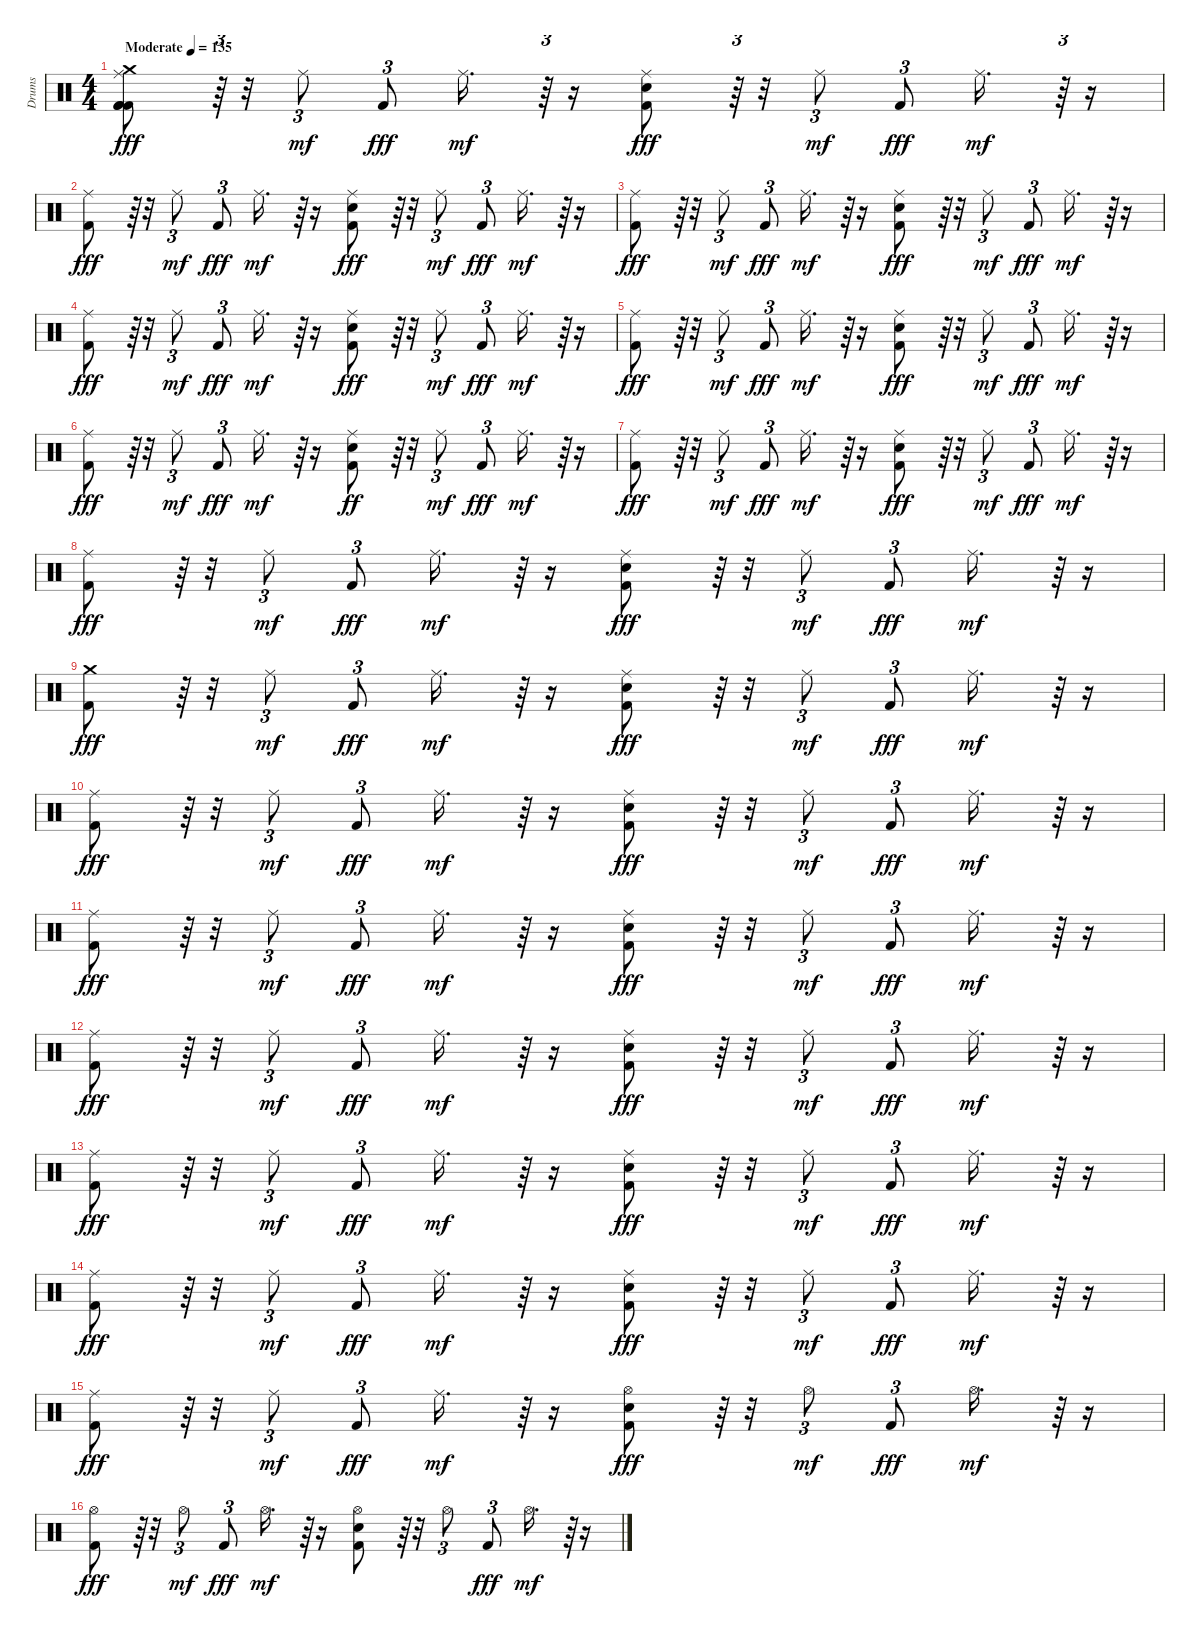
\track ("Drums" "Drums") {instrument percussion}
\staff {score}
\articulation defaults
\ts (4 4)
\tempo (135 "Moderate")
\clef neutral
\ks c
("Ride (middle)" "Crash medium (hit)" "Kick (hit) 2" "Kick (hit) 2" "Kick (hit) 2").8{dy fff} r.64{tu (3 2)} r.32 "Ride (middle)".8{tu (3 2) dy mf} "Kick (hit) 2".8{tu (3 2) dy fff} "Ride (middle)".16{d dy mf} r.64{tu (3 2)} r.16 ("Ride (middle)" "Kick (hit) 2" "Snare (hit) 2").8{dy fff} r.64{tu (3 2)} r.32 "Ride (middle)".8{tu (3 2) dy mf} "Kick (hit) 2".8{tu (3 2) dy fff} "Ride (middle)".16{d dy mf} r.64{tu (3 2)} r.16 |
("Ride (middle)" "Kick (hit) 2").8{dy fff} r.64{tu (3 2)} r.32 "Ride (middle)".8{tu (3 2) dy mf} "Kick (hit) 2".8{tu (3 2) dy fff} "Ride (middle)".16{d dy mf} r.64{tu (3 2)} r.16 ("Ride (middle)" "Kick (hit) 2" "Snare (hit) 2").8{dy fff} r.64{tu (3 2)} r.32 "Ride (middle)".8{tu (3 2) dy mf} "Kick (hit) 2".8{tu (3 2) dy fff} "Ride (middle)".16{d dy mf} r.64{tu (3 2)} r.16 |
("Ride (middle)" "Kick (hit) 2").8{dy fff} r.64{tu (3 2)} r.32 "Ride (middle)".8{tu (3 2) dy mf} "Kick (hit) 2".8{tu (3 2) dy fff} "Ride (middle)".16{d dy mf} r.64{tu (3 2)} r.16 ("Ride (middle)" "Kick (hit) 2" "Snare (hit) 2").8{dy fff} r.64{tu (3 2)} r.32 "Ride (middle)".8{tu (3 2) dy mf} "Kick (hit) 2".8{tu (3 2) dy fff} "Ride (middle)".16{d dy mf} r.64{tu (3 2)} r.16 |
("Ride (middle)" "Kick (hit) 2").8{dy fff} r.64{tu (3 2)} r.32 "Ride (middle)".8{tu (3 2) dy mf} "Kick (hit) 2".8{tu (3 2) dy fff} "Ride (middle)".16{d dy mf} r.64{tu (3 2)} r.16 ("Ride (middle)" "Snare (hit) 2" "Kick (hit) 2").8{dy fff} r.64{tu (3 2)} r.32 "Ride (middle)".8{tu (3 2) dy mf} "Kick (hit) 2".8{tu (3 2) dy fff} "Ride (middle)".16{d dy mf} r.64{tu (3 2)} r.16 |
("Ride (middle)" "Kick (hit) 2").8{dy fff} r.64{tu (3 2)} r.32 "Ride (middle)".8{tu (3 2) dy mf} "Kick (hit) 2".8{tu (3 2) dy fff} "Ride (middle)".16{d dy mf} r.64{tu (3 2)} r.16 ("Ride (middle)" "Snare (hit) 2" "Kick (hit) 2").8{dy fff} r.64{tu (3 2)} r.32 "Ride (middle)".8{tu (3 2) dy mf} "Kick (hit) 2".8{tu (3 2) dy fff} "Ride (middle)".16{d dy mf} r.64{tu (3 2)} r.16 |
("Ride (middle)" "Kick (hit) 2").8{dy fff} r.64{tu (3 2)} r.32 "Ride (middle)".8{tu (3 2) dy mf} "Kick (hit) 2".8{tu (3 2) dy fff} "Ride (middle)".16{d dy mf} r.64{tu (3 2)} r.16 ("Ride (middle)" "Kick (hit) 2" "Snare (hit) 2").8{dy ff} r.64{tu (3 2)} r.32 "Ride (middle)".8{tu (3 2) dy mf} "Kick (hit) 2".8{tu (3 2) dy fff} "Ride (middle)".16{d dy mf} r.64{tu (3 2)} r.16 |
("Ride (middle)" "Kick (hit) 2").8{dy fff} r.64{tu (3 2)} r.32 "Ride (middle)".8{tu (3 2) dy mf} "Kick (hit) 2".8{tu (3 2) dy fff} "Ride (middle)".16{d dy mf} r.64{tu (3 2)} r.16 ("Ride (middle)" "Snare (hit) 2" "Kick (hit) 2").8{dy fff} r.64{tu (3 2)} r.32 "Ride (middle)".8{tu (3 2) dy mf} "Kick (hit) 2".8{tu (3 2) dy fff} "Ride (middle)".16{d dy mf} r.64{tu (3 2)} r.16 |
("Ride (middle)" "Kick (hit) 2").8{dy fff} r.64{tu (3 2)} r.32 "Ride (middle)".8{tu (3 2) dy mf} "Kick (hit) 2".8{tu (3 2) dy fff} "Ride (middle)".16{d dy mf} r.64{tu (3 2)} r.16 ("Ride (middle)" "Snare (hit) 2" "Kick (hit) 2").8{dy fff} r.64{tu (3 2)} r.32 "Ride (middle)".8{tu (3 2) dy mf} "Kick (hit) 2".8{tu (3 2) dy fff} "Ride (middle)".16{d dy mf} r.64{tu (3 2)} r.16 |
("Crash medium (hit)" "Kick (hit) 2").8{dy fff} r.64{tu (3 2)} r.32 "Ride (middle)".8{tu (3 2) dy mf} "Kick (hit) 2".8{tu (3 2) dy fff} "Ride (middle)".16{d dy mf} r.64{tu (3 2)} r.16 ("Ride (middle)" "Snare (hit) 2" "Kick (hit) 2").8{dy fff} r.64{tu (3 2)} r.32 "Ride (middle)".8{tu (3 2) dy mf} "Kick (hit) 2".8{tu (3 2) dy fff} "Ride (middle)".16{d dy mf} r.64{tu (3 2)} r.16 |
("Ride (middle)" "Kick (hit) 2").8{dy fff} r.64{tu (3 2)} r.32 "Ride (middle)".8{tu (3 2) dy mf} "Kick (hit) 2".8{tu (3 2) dy fff} "Ride (middle)".16{d dy mf} r.64{tu (3 2)} r.16 ("Ride (middle)" "Kick (hit) 2" "Snare (hit) 2").8{dy fff} r.64{tu (3 2)} r.32 "Ride (middle)".8{tu (3 2) dy mf} "Kick (hit) 2".8{tu (3 2) dy fff} "Ride (middle)".16{d dy mf} r.64{tu (3 2)} r.16 |
("Ride (middle)" "Kick (hit) 2").8{dy fff} r.64{tu (3 2)} r.32 "Ride (middle)".8{tu (3 2) dy mf} "Kick (hit) 2".8{tu (3 2) dy fff} "Ride (middle)".16{d dy mf} r.64{tu (3 2)} r.16 ("Ride (middle)" "Snare (hit) 2" "Kick (hit) 2").8{dy fff} r.64{tu (3 2)} r.32 "Ride (middle)".8{tu (3 2) dy mf} "Kick (hit) 2".8{tu (3 2) dy fff} "Ride (middle)".16{d dy mf} r.64{tu (3 2)} r.16 |
("Ride (middle)" "Kick (hit) 2").8{dy fff} r.64{tu (3 2)} r.32 "Ride (middle)".8{tu (3 2) dy mf} "Kick (hit) 2".8{tu (3 2) dy fff} "Ride (middle)".16{d dy mf} r.64{tu (3 2)} r.16 ("Ride (middle)" "Snare (hit) 2" "Kick (hit) 2").8{dy fff} r.64{tu (3 2)} r.32 "Ride (middle)".8{tu (3 2) dy mf} "Kick (hit) 2".8{tu (3 2) dy fff} "Ride (middle)".16{d dy mf} r.64{tu (3 2)} r.16 |
("Ride (middle)" "Kick (hit) 2").8{dy fff} r.64{tu (3 2)} r.32 "Ride (middle)".8{tu (3 2) dy mf} "Kick (hit) 2".8{tu (3 2) dy fff} "Ride (middle)".16{d dy mf} r.64{tu (3 2)} r.16 ("Ride (middle)" "Snare (hit) 2" "Kick (hit) 2").8{dy fff} r.64{tu (3 2)} r.32 "Ride (middle)".8{tu (3 2) dy mf} "Kick (hit) 2".8{tu (3 2) dy fff} "Ride (middle)".16{d dy mf} r.64{tu (3 2)} r.16 |
("Ride (middle)" "Kick (hit) 2").8{dy fff} r.64{tu (3 2)} r.32 "Ride (middle)".8{tu (3 2) dy mf} "Kick (hit) 2".8{tu (3 2) dy fff} "Ride (middle)".16{d dy mf} r.64{tu (3 2)} r.16 ("Ride (middle)" "Snare (hit) 2" "Kick (hit) 2").8{dy fff} r.64{tu (3 2)} r.32 "Ride (middle)".8{tu (3 2) dy mf} "Kick (hit) 2".8{tu (3 2) dy fff} "Ride (middle)".16{d dy mf} r.64{tu (3 2)} r.16 |
("Ride (middle)" "Kick (hit) 2").8{dy fff} r.64{tu (3 2)} r.32 "Ride (middle)".8{tu (3 2) dy mf} "Kick (hit) 2".8{tu (3 2) dy fff} "Ride (middle)".16{d dy mf} r.64{tu (3 2)} r.16 ("Hi-Hat (open)" "Snare (hit) 2" "Kick (hit) 2").8{dy fff} r.64{tu (3 2)} r.32 "Hi-Hat (open)".8{tu (3 2) dy mf} "Kick (hit) 2".8{tu (3 2) dy fff} "Hi-Hat (open)".16{d dy mf} r.64{tu (3 2)} r.16 |
("Hi-Hat (open)" "Kick (hit) 2").8{dy fff} r.64{tu (3 2)} r.32 "Hi-Hat (open)".8{tu (3 2) dy mf} "Kick (hit) 2".8{tu (3 2) dy fff} "Hi-Hat (open)".16{d dy mf} r.64{tu (3 2)} r.16 ("Kick (hit) 2" "Snare (hit) 2" "Hi-Hat (open)").8 r.64{tu (3 2)} r.32 "Hi-Hat (open)".8{tu (3 2)} "Kick (hit) 2".8{tu (3 2) dy fff} "Hi-Hat (open)".16{d dy mf} r.64{tu (3 2)} r.16
